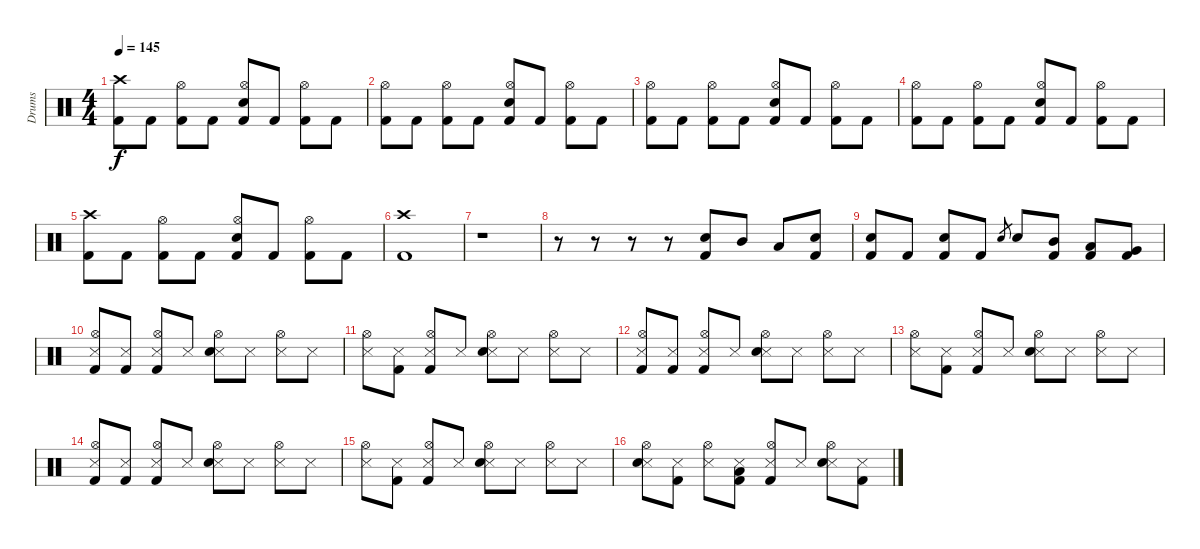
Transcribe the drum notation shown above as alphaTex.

\track ("Drums" "Drums") {instrument percussion}
\staff {score}
\articulation defaults
\ts (4 4)
\tempo 145
\clef neutral
\ks c
("Crash high (hit)" "Kick (hit) 2").8{dy f} "Kick (hit) 2".8 ("Hi-Hat (open)" "Kick (hit) 2").8 "Kick (hit) 2".8 ("Hi-Hat (open)" "Snare (hit) 2" "Kick (hit) 2").8 "Kick (hit) 2".8 ("Hi-Hat (open)" "Kick (hit) 2").8 "Kick (hit) 2".8 |
("Hi-Hat (open)" "Kick (hit) 2").8 "Kick (hit) 2".8 ("Hi-Hat (open)" "Kick (hit) 2").8 "Kick (hit) 2".8 ("Hi-Hat (open)" "Snare (hit) 2" "Kick (hit) 2").8 "Kick (hit) 2".8 ("Hi-Hat (open)" "Kick (hit) 2").8 "Kick (hit) 2".8 |
("Hi-Hat (open)" "Kick (hit) 2").8 "Kick (hit) 2".8 ("Hi-Hat (open)" "Kick (hit) 2").8 "Kick (hit) 2".8 ("Hi-Hat (open)" "Snare (hit) 2" "Kick (hit) 2").8 "Kick (hit) 2".8 ("Hi-Hat (open)" "Kick (hit) 2").8 "Kick (hit) 2".8 |
("Hi-Hat (open)" "Kick (hit) 2").8 "Kick (hit) 2".8 ("Hi-Hat (open)" "Kick (hit) 2").8 "Kick (hit) 2".8 ("Hi-Hat (open)" "Snare (hit) 2" "Kick (hit) 2").8 "Kick (hit) 2".8 ("Hi-Hat (open)" "Kick (hit) 2").8 "Kick (hit) 2".8 |
("Crash high (hit)" "Kick (hit) 2").8 "Kick (hit) 2".8 ("Hi-Hat (open)" "Kick (hit) 2").8 "Kick (hit) 2".8 ("Hi-Hat (open)" "Snare (hit) 2" "Kick (hit) 2").8 "Kick (hit) 2".8 ("Hi-Hat (open)" "Kick (hit) 2").8 "Kick (hit) 2".8 |
("Crash high (hit)" "Kick (hit) 2").1 |
r.1 |
r.8 r.8 r.8 r.8 ("Electric Snare (hit)" "Kick (hit) 2").8 "Mid Tom (hit)".8 "Low Tom (hit)".8 ("Snare (hit) 2" "Kick (hit) 2").8 |
("Electric Snare (hit)" "Kick (hit) 2").8 "Kick (hit) 2".8 ("Electric Snare (hit)" "Kick (hit) 2").8 "Kick (hit) 2".8 "Electric Snare (hit)".8{gr} "Electric Snare (hit)".8 ("Mid Tom (hit)" "Kick (hit) 2").8 ("Low Tom (hit)" "Kick (hit) 2").8 ("Very Low Tom (hit)" "Kick (hit) 2").8 |
("Hi-Hat (open)" "Snare (side stick) 3" "Kick (hit) 2").8 ("Snare (side stick) 3" "Kick (hit) 2").8 ("Hi-Hat (open)" "Snare (side stick) 3" "Kick (hit) 2").8 "Snare (side stick) 3".8 ("Hi-Hat (open)" "Snare (side stick) 3" "Snare (hit) 2").8 "Snare (side stick) 3".8 ("Hi-Hat (open)" "Snare (side stick) 3").8 "Snare (side stick) 3".8 |
("Hi-Hat (open)" "Snare (side stick) 3").8 ("Snare (side stick) 3" "Kick (hit) 2").8 ("Hi-Hat (open)" "Snare (side stick) 3" "Kick (hit) 2").8 "Snare (side stick) 3".8 ("Hi-Hat (open)" "Snare (side stick) 3" "Snare (hit) 2").8 "Snare (side stick) 3".8 ("Hi-Hat (open)" "Snare (side stick) 3").8 "Snare (side stick) 3".8 |
("Hi-Hat (open)" "Snare (side stick) 3" "Kick (hit) 2").8 ("Snare (side stick) 3" "Kick (hit) 2").8 ("Hi-Hat (open)" "Snare (side stick) 3" "Kick (hit) 2").8 "Snare (side stick) 3".8 ("Hi-Hat (open)" "Snare (side stick) 3" "Snare (hit) 2").8 "Snare (side stick) 3".8 ("Hi-Hat (open)" "Snare (side stick) 3").8 "Snare (side stick) 3".8 |
("Hi-Hat (open)" "Snare (side stick) 3").8 ("Snare (side stick) 3" "Kick (hit) 2").8 ("Hi-Hat (open)" "Snare (side stick) 3" "Kick (hit) 2").8 "Snare (side stick) 3".8 ("Hi-Hat (open)" "Snare (side stick) 3" "Snare (hit) 2").8 "Snare (side stick) 3".8 ("Hi-Hat (open)" "Snare (side stick) 3").8 "Snare (side stick) 3".8 |
("Hi-Hat (open)" "Snare (side stick) 3" "Kick (hit) 2").8 ("Snare (side stick) 3" "Kick (hit) 2").8 ("Hi-Hat (open)" "Snare (side stick) 3" "Kick (hit) 2").8 "Snare (side stick) 3".8 ("Hi-Hat (open)" "Snare (side stick) 3" "Snare (hit) 2").8 "Snare (side stick) 3".8 ("Hi-Hat (open)" "Snare (side stick) 3").8 "Snare (side stick) 3".8 |
("Hi-Hat (open)" "Snare (side stick) 3").8 ("Snare (side stick) 3" "Kick (hit) 2").8 ("Hi-Hat (open)" "Snare (side stick) 3" "Kick (hit) 2").8 "Snare (side stick) 3".8 ("Hi-Hat (open)" "Snare (side stick) 3" "Snare (hit) 2").8 "Snare (side stick) 3".8 ("Hi-Hat (open)" "Snare (side stick) 3").8 "Snare (side stick) 3".8 |
("Hi-Hat (open)" "Snare (side stick) 3" "Electric Snare (hit)").8 ("Snare (side stick) 3" "Kick (hit) 2").8 ("Hi-Hat (open)" "Snare (side stick) 3").8 ("Snare (side stick) 3" "Low Tom (hit)" "Kick (hit) 2").8 ("Hi-Hat (open)" "Snare (side stick) 3" "Kick (hit) 2").8 "Snare (side stick) 3".8 ("Hi-Hat (open)" "Snare (side stick) 3" "Electric Snare (hit)").8 ("Snare (side stick) 3" "Kick (hit) 2").8
